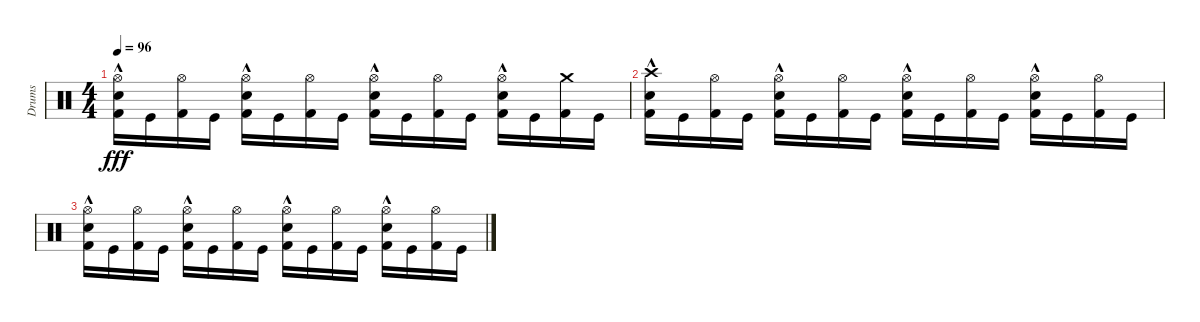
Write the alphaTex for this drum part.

\track ("Drums" "Drums") {instrument percussion}
\staff {score}
\articulation defaults
\ts (4 4)
\tempo 96
\clef neutral
\ks c
("Hi-Hat (open)" "Electric Snare (hit)"{hac} "Kick (hit) 2").16{dy fff} "Kick (hit)".16 ("Hi-Hat (open)" "Kick (hit) 2").16 "Kick (hit)".16 ("Hi-Hat (open)" "Electric Snare (hit)"{hac} "Kick (hit) 2").16 "Kick (hit)".16 ("Hi-Hat (open)" "Kick (hit) 2").16 "Kick (hit)".16 ("Hi-Hat (open)" "Electric Snare (hit)"{hac} "Kick (hit) 2").16 "Kick (hit)".16 ("Hi-Hat (open)" "Kick (hit) 2").16 "Kick (hit)".16 ("Hi-Hat (open)" "Electric Snare (hit)"{hac} "Kick (hit) 2").16 "Kick (hit)".16 ("Crash medium (hit)" "Kick (hit) 2").16 "Kick (hit)".16 |
("Crash high (hit)" "Electric Snare (hit)"{hac} "Kick (hit) 2").16 "Kick (hit)".16 ("Hi-Hat (open)" "Kick (hit) 2").16 "Kick (hit)".16 ("Hi-Hat (open)" "Electric Snare (hit)"{hac} "Kick (hit) 2").16 "Kick (hit)".16 ("Hi-Hat (open)" "Kick (hit) 2").16 "Kick (hit)".16 ("Hi-Hat (open)" "Electric Snare (hit)"{hac} "Kick (hit) 2").16 "Kick (hit)".16 ("Hi-Hat (open)" "Kick (hit) 2").16 "Kick (hit)".16 ("Hi-Hat (open)" "Electric Snare (hit)"{hac} "Kick (hit) 2").16 "Kick (hit)".16 ("Hi-Hat (open)" "Kick (hit) 2").16 "Kick (hit)".16 |
("Hi-Hat (open)" "Electric Snare (hit)"{hac} "Kick (hit) 2").16 "Kick (hit)".16 ("Hi-Hat (open)" "Kick (hit) 2").16 "Kick (hit)".16 ("Hi-Hat (open)" "Electric Snare (hit)"{hac} "Kick (hit) 2").16 "Kick (hit)".16 ("Hi-Hat (open)" "Kick (hit) 2").16 "Kick (hit)".16 ("Hi-Hat (open)" "Electric Snare (hit)"{hac} "Kick (hit) 2").16 "Kick (hit)".16 ("Hi-Hat (open)" "Kick (hit) 2").16 "Kick (hit)".16 ("Hi-Hat (open)" "Electric Snare (hit)"{hac} "Kick (hit) 2").16 "Kick (hit)".16 ("Hi-Hat (open)" "Kick (hit) 2").16 "Kick (hit)".16
